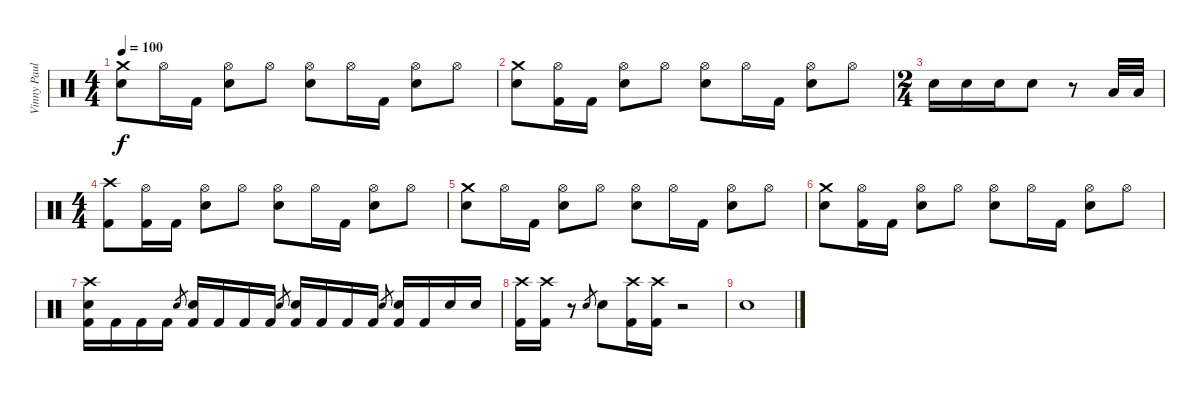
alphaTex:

\track ("Vinny Paul" "Vinny Paul") {instrument percussion}
\staff {score}
\articulation defaults
\ts (4 4)
\tempo 100
\clef neutral
\ks c
("Crash medium (hit)" "Snare (hit) 2").8{dy f} "Hi-Hat (open)".16 "Kick (hit) 2".16 ("Hi-Hat (open)" "Snare (hit) 2").8 "Hi-Hat (open)".8 ("Hi-Hat (open)" "Snare (hit) 2").8 "Hi-Hat (open)".16 "Kick (hit) 2".16 ("Hi-Hat (open)" "Snare (hit) 2").8 "Hi-Hat (open)".8 |
("Crash medium (hit)" "Snare (hit) 2").8 ("Hi-Hat (open)" "Kick (hit) 2").16 "Kick (hit) 2".16 ("Hi-Hat (open)" "Snare (hit) 2").8 "Hi-Hat (open)".8 ("Hi-Hat (open)" "Snare (hit) 2").8 "Hi-Hat (open)".16 "Kick (hit) 2".16 ("Hi-Hat (open)" "Snare (hit) 2").8 "Hi-Hat (open)".8 |
\ts (2 4)
"Snare (hit) 2".16 "Snare (hit) 2".16 "Snare (hit) 2".16 "Snare (hit) 2".8 r.8 "Low Tom (hit)".32 "Low Tom (hit)".32 |
\ts (4 4)
("Crash high (hit)" "Kick (hit) 2").8 ("Hi-Hat (open)" "Kick (hit) 2").16 "Kick (hit) 2".16 ("Hi-Hat (open)" "Snare (hit) 2").8 "Hi-Hat (open)".8 ("Hi-Hat (open)" "Snare (hit) 2").8 "Hi-Hat (open)".16 "Kick (hit) 2".16 ("Hi-Hat (open)" "Snare (hit) 2").8 "Hi-Hat (open)".8 |
("Crash medium (hit)" "Snare (hit) 2").8 "Hi-Hat (open)".16 "Kick (hit) 2".16 ("Hi-Hat (open)" "Snare (hit) 2").8 "Hi-Hat (open)".8 ("Hi-Hat (open)" "Snare (hit) 2").8 "Hi-Hat (open)".16 "Kick (hit) 2".16 ("Hi-Hat (open)" "Snare (hit) 2").8 "Hi-Hat (open)".8 |
("Crash medium (hit)" "Snare (hit) 2").8 ("Hi-Hat (open)" "Kick (hit) 2").16 "Kick (hit) 2".16 ("Hi-Hat (open)" "Snare (hit) 2").8 "Hi-Hat (open)".8 ("Hi-Hat (open)" "Snare (hit) 2").8 "Hi-Hat (open)".16 "Kick (hit) 2".16 ("Hi-Hat (open)" "Snare (hit) 2").8 "Hi-Hat (open)".8 |
("Crash high (hit)" "Snare (hit) 2" "Kick (hit) 2").16 "Kick (hit) 2".16 "Kick (hit) 2".16 "Kick (hit) 2".16 "Snare (hit) 2".8{gr} ("Snare (hit) 2" "Kick (hit) 2").16 "Kick (hit) 2".16 "Kick (hit) 2".16 "Kick (hit) 2".16 "Snare (hit) 2".8{gr} ("Snare (hit) 2" "Kick (hit) 2").16 "Kick (hit) 2".16 "Kick (hit) 2".16 "Kick (hit) 2".16 "Snare (hit) 2".8{gr} ("Snare (hit) 2" "Kick (hit) 2").16 "Kick (hit) 2".16 "Snare (hit) 2".16 "Snare (hit) 2".16 |
("Crash high (hit)" "Kick (hit) 2").16 ("Crash high (hit)" "Kick (hit) 2").16 r.8 "Snare (hit) 2".8{gr} "Snare (hit) 2".8 ("Crash high (hit)" "Kick (hit) 2").16 ("Crash high (hit)" "Kick (hit) 2").16 r.2 |
"Snare (hit)".1
